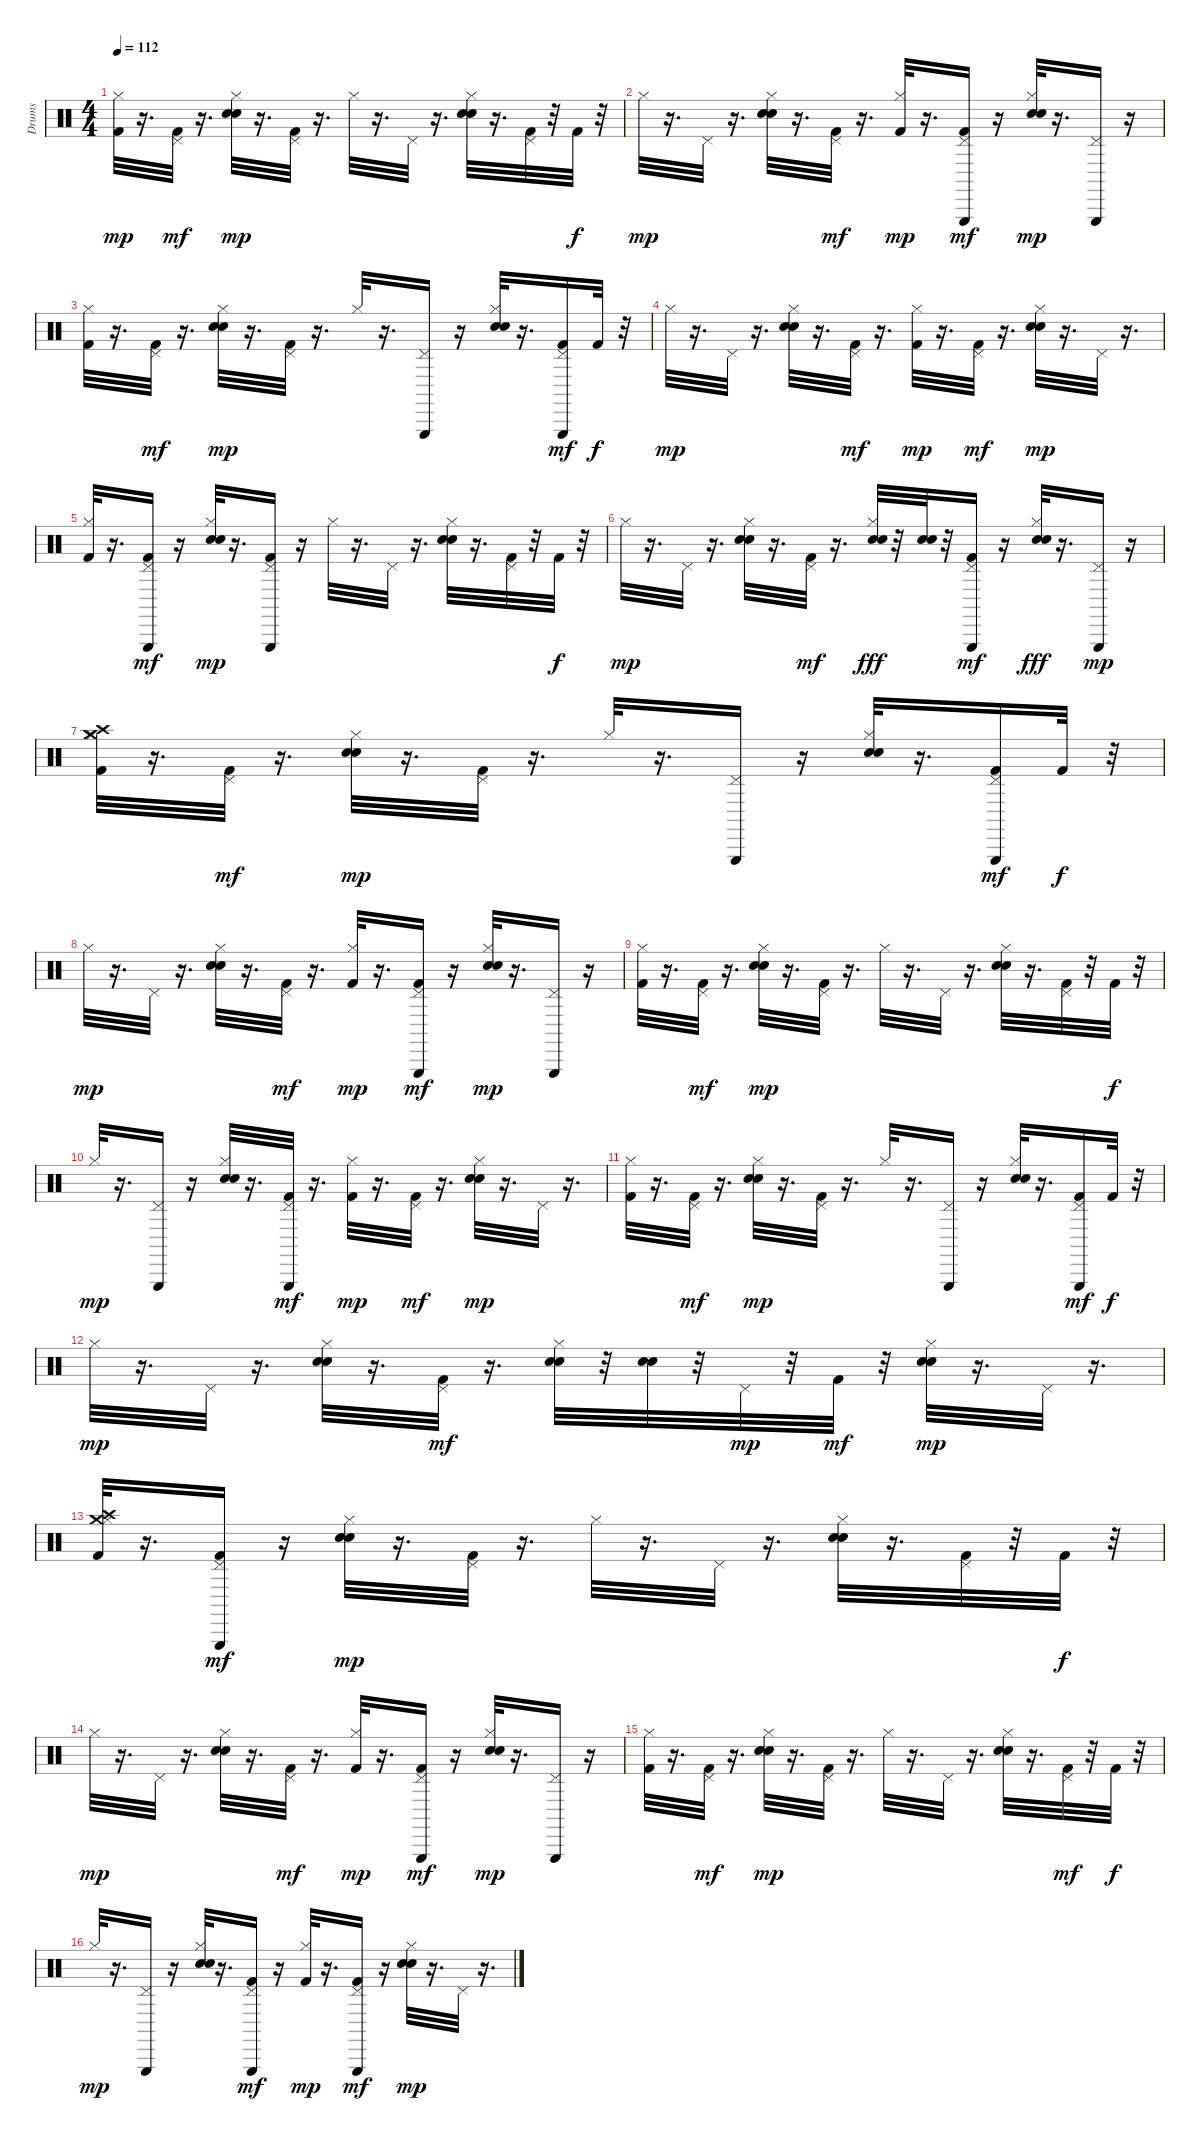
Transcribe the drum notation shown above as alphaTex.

\track ("Drums" "Drums") {instrument percussion}
\staff {score}
\articulation defaults
\ts (4 4)
\tempo 112
\clef neutral
\ks c
("Hi-Hat (closed)" "Kick (hit) 2").32{dy mp} r.16{d} ("Pedal Hi-Hat (hit)" "Kick (hit) 2").32{dy mf} r.16{d} ("Hi-Hat (closed)" "Electric Snare (hit)" "Hand Clap (hit)").32{dy mp} r.16{d} ("Pedal Hi-Hat (hit)" "Kick (hit) 2").32 r.16{d} "Hi-Hat (closed)".32 r.16{d} "Pedal Hi-Hat (hit)".32 r.16{d} ("Hi-Hat (closed)" "Electric Snare (hit)" "Hand Clap (hit)").32 r.16{d} ("Pedal Hi-Hat (hit)" "Kick (hit) 2").32 r.32 "Kick (hit) 2".32{dy f} r.32 |
"Hi-Hat (closed)".32{dy mp} r.16{d} "Pedal Hi-Hat (hit)".32 r.16{d} ("Hi-Hat (closed)" "Electric Snare (hit)" "Hand Clap (hit)").32 r.16{d} ("Pedal Hi-Hat (hit)" "Kick (hit) 2").32{dy mf} r.16{d} ("Hi-Hat (closed)" "Kick (hit) 2").32{dy mp} r.16{d} ("Triangle (hit)" "Pedal Hi-Hat (hit)" "Kick (hit) 2").16{dy mf} r.16 ("Hi-Hat (closed)" "Electric Snare (hit)" "Hand Clap (hit)").32{dy mp} r.16{d} ("Triangle (hit)" "Pedal Hi-Hat (hit)").16 r.16 |
("Hi-Hat (closed)" "Kick (hit) 2").32 r.16{d} ("Pedal Hi-Hat (hit)" "Kick (hit) 2").32{dy mf} r.16{d} ("Hi-Hat (closed)" "Electric Snare (hit)" "Hand Clap (hit)").32{dy mp} r.16{d} ("Pedal Hi-Hat (hit)" "Kick (hit) 2").32 r.16{d} "Hi-Hat (closed)".32 r.16{d} ("Triangle (hit)" "Pedal Hi-Hat (hit)").16 r.16 ("Hi-Hat (closed)" "Electric Snare (hit)" "Hand Clap (hit)").32 r.16{d} ("Triangle (hit)" "Pedal Hi-Hat (hit)" "Kick (hit) 2").16{dy mf} "Kick (hit) 2".32{dy f} r.32 |
"Hi-Hat (closed)".32{dy mp} r.16{d} "Pedal Hi-Hat (hit)".32 r.16{d} ("Hi-Hat (closed)" "Electric Snare (hit)" "Hand Clap (hit)").32 r.16{d} ("Pedal Hi-Hat (hit)" "Kick (hit) 2").32{dy mf} r.16{d} ("Hi-Hat (closed)" "Kick (hit) 2").32{dy mp} r.16{d} ("Pedal Hi-Hat (hit)" "Kick (hit) 2").32{dy mf} r.16{d} ("Hi-Hat (closed)" "Electric Snare (hit)" "Hand Clap (hit)").32{dy mp} r.16{d} "Pedal Hi-Hat (hit)".32 r.16{d} |
("Hi-Hat (closed)" "Kick (hit) 2").32 r.16{d} ("Triangle (hit)" "Pedal Hi-Hat (hit)" "Kick (hit) 2").16{dy mf} r.16 ("Hi-Hat (closed)" "Electric Snare (hit)" "Hand Clap (hit)").32{dy mp} r.16{d} ("Triangle (hit)" "Pedal Hi-Hat (hit)" "Kick (hit) 2").16 r.16 "Hi-Hat (closed)".32 r.16{d} "Pedal Hi-Hat (hit)".32 r.16{d} ("Hi-Hat (closed)" "Electric Snare (hit)" "Hand Clap (hit)").32 r.16{d} ("Pedal Hi-Hat (hit)" "Kick (hit) 2").32 r.32 "Kick (hit) 2".32{dy f} r.32 |
"Hi-Hat (closed)".32{dy mp} r.16{d} "Pedal Hi-Hat (hit)".32 r.16{d} ("Hi-Hat (closed)" "Electric Snare (hit)" "Hand Clap (hit)").32 r.16{d} ("Pedal Hi-Hat (hit)" "Kick (hit) 2").32{dy mf} r.16{d} ("Hi-Hat (closed)" "Electric Snare (hit)" "Hand Clap (hit)").32{dy fff} r.32 ("Electric Snare (hit)" "Hand Clap (hit)").32 r.32 ("Triangle (hit)" "Pedal Hi-Hat (hit)" "Kick (hit) 2").16{dy mf} r.16 ("Hi-Hat (closed)" "Hand Clap (hit)" "Electric Snare (hit)").32{dy fff} r.16{d} ("Triangle (hit)" "Pedal Hi-Hat (hit)").16{dy mp} r.16 |
("Crash high (hit)" "Crash medium (hit)" "Hi-Hat (closed)" "Kick (hit) 2").32 r.16{d} ("Pedal Hi-Hat (hit)" "Kick (hit) 2").32{dy mf} r.16{d} ("Hi-Hat (closed)" "Electric Snare (hit)" "Hand Clap (hit)").32{dy mp} r.16{d} ("Pedal Hi-Hat (hit)" "Kick (hit) 2").32 r.16{d} "Hi-Hat (closed)".32 r.16{d} ("Triangle (hit)" "Pedal Hi-Hat (hit)").16 r.16 ("Hi-Hat (closed)" "Electric Snare (hit)" "Hand Clap (hit)").32 r.16{d} ("Triangle (hit)" "Pedal Hi-Hat (hit)" "Kick (hit) 2").16{dy mf} "Kick (hit) 2".32{dy f} r.32 |
"Hi-Hat (closed)".32{dy mp} r.16{d} "Pedal Hi-Hat (hit)".32 r.16{d} ("Hi-Hat (closed)" "Electric Snare (hit)" "Hand Clap (hit)").32 r.16{d} ("Pedal Hi-Hat (hit)" "Kick (hit) 2").32{dy mf} r.16{d} ("Hi-Hat (closed)" "Kick (hit) 2").32{dy mp} r.16{d} ("Triangle (hit)" "Pedal Hi-Hat (hit)" "Kick (hit) 2").16{dy mf} r.16 ("Hi-Hat (closed)" "Electric Snare (hit)" "Hand Clap (hit)").32{dy mp} r.16{d} ("Triangle (hit)" "Pedal Hi-Hat (hit)").16 r.16 |
("Hi-Hat (closed)" "Kick (hit) 2").32 r.16{d} ("Pedal Hi-Hat (hit)" "Kick (hit) 2").32{dy mf} r.16{d} ("Hi-Hat (closed)" "Electric Snare (hit)" "Hand Clap (hit)").32{dy mp} r.16{d} ("Pedal Hi-Hat (hit)" "Kick (hit) 2").32 r.16{d} "Hi-Hat (closed)".32 r.16{d} "Pedal Hi-Hat (hit)".32 r.16{d} ("Hi-Hat (closed)" "Electric Snare (hit)" "Hand Clap (hit)").32 r.16{d} ("Pedal Hi-Hat (hit)" "Kick (hit) 2").32 r.32 "Kick (hit) 2".32{dy f} r.32 |
"Hi-Hat (closed)".32{dy mp} r.16{d} ("Triangle (hit)" "Pedal Hi-Hat (hit)").16 r.16 ("Hi-Hat (closed)" "Electric Snare (hit)" "Hand Clap (hit)").32 r.16{d} ("Triangle (hit)" "Pedal Hi-Hat (hit)" "Kick (hit) 2").32{dy mf} r.16{d} ("Hi-Hat (closed)" "Kick (hit) 2").32{dy mp} r.16{d} ("Pedal Hi-Hat (hit)" "Kick (hit) 2").32{dy mf} r.16{d} ("Hi-Hat (closed)" "Electric Snare (hit)" "Hand Clap (hit)").32{dy mp} r.16{d} "Pedal Hi-Hat (hit)".32 r.16{d} |
("Hi-Hat (closed)" "Kick (hit) 2").32 r.16{d} ("Pedal Hi-Hat (hit)" "Kick (hit) 2").32{dy mf} r.16{d} ("Hi-Hat (closed)" "Electric Snare (hit)" "Hand Clap (hit)").32{dy mp} r.16{d} ("Pedal Hi-Hat (hit)" "Kick (hit) 2").32 r.16{d} "Hi-Hat (closed)".32 r.16{d} ("Triangle (hit)" "Pedal Hi-Hat (hit)").16 r.16 ("Hi-Hat (closed)" "Electric Snare (hit)" "Hand Clap (hit)").32 r.16{d} ("Triangle (hit)" "Pedal Hi-Hat (hit)" "Kick (hit) 2").16{dy mf} "Kick (hit) 2".32{dy f} r.32 |
"Hi-Hat (closed)".32{dy mp} r.16{d} "Pedal Hi-Hat (hit)".32 r.16{d} ("Hi-Hat (closed)" "Electric Snare (hit)" "Hand Clap (hit)").32 r.16{d} ("Pedal Hi-Hat (hit)" "Kick (hit) 2").32{dy mf} r.16{d} ("Hi-Hat (closed)" "Hand Clap (hit)" "Electric Snare (hit)").32 r.32 ("Hand Clap (hit)" "Electric Snare (hit)").32 r.32 "Pedal Hi-Hat (hit)".32{dy mp} r.32 "Kick (hit) 2".32{dy mf} r.32 ("Hi-Hat (closed)" "Electric Snare (hit)" "Hand Clap (hit)").32{dy mp} r.16{d} "Pedal Hi-Hat (hit)".32 r.16{d} |
("Crash medium (hit)" "Crash high (hit)" "Hi-Hat (closed)" "Kick (hit) 2").32 r.16{d} ("Triangle (hit)" "Pedal Hi-Hat (hit)" "Kick (hit) 2").16{dy mf} r.16 ("Hi-Hat (closed)" "Electric Snare (hit)" "Hand Clap (hit)").32{dy mp} r.16{d} ("Pedal Hi-Hat (hit)" "Kick (hit) 2").32 r.16{d} "Hi-Hat (closed)".32 r.16{d} "Pedal Hi-Hat (hit)".32 r.16{d} ("Hi-Hat (closed)" "Electric Snare (hit)" "Hand Clap (hit)").32 r.16{d} ("Pedal Hi-Hat (hit)" "Kick (hit) 2").32 r.32 "Kick (hit) 2".32{dy f} r.32 |
"Hi-Hat (closed)".32{dy mp} r.16{d} "Pedal Hi-Hat (hit)".32 r.16{d} ("Hi-Hat (closed)" "Electric Snare (hit)" "Hand Clap (hit)").32 r.16{d} ("Pedal Hi-Hat (hit)" "Kick (hit) 2").32{dy mf} r.16{d} ("Hi-Hat (closed)" "Kick (hit) 2").32{dy mp} r.16{d} ("Triangle (hit)" "Pedal Hi-Hat (hit)" "Kick (hit) 2").16{dy mf} r.16 ("Hi-Hat (closed)" "Electric Snare (hit)" "Hand Clap (hit)").32{dy mp} r.16{d} ("Triangle (hit)" "Pedal Hi-Hat (hit)").16 r.16 |
("Hi-Hat (closed)" "Kick (hit) 2").32 r.16{d} ("Pedal Hi-Hat (hit)" "Kick (hit) 2").32{dy mf} r.16{d} ("Hi-Hat (closed)" "Electric Snare (hit)" "Hand Clap (hit)").32{dy mp} r.16{d} ("Pedal Hi-Hat (hit)" "Kick (hit) 2").32 r.16{d} "Hi-Hat (closed)".32 r.16{d} "Pedal Hi-Hat (hit)".32 r.16{d} ("Hi-Hat (closed)" "Electric Snare (hit)" "Hand Clap (hit)").32 r.16{d} ("Pedal Hi-Hat (hit)" "Kick (hit) 2").32{dy mf} r.32 "Kick (hit) 2".32{dy f} r.32 |
"Hi-Hat (closed)".32{dy mp} r.16{d} ("Triangle (hit)" "Pedal Hi-Hat (hit)").16 r.16 ("Hi-Hat (closed)" "Electric Snare (hit)" "Hand Clap (hit)").32 r.16{d} ("Triangle (hit)" "Pedal Hi-Hat (hit)" "Kick (hit) 2").16{dy mf} r.16 ("Hi-Hat (closed)" "Kick (hit) 2").32{dy mp} r.16{d} ("Triangle (hit)" "Pedal Hi-Hat (hit)" "Kick (hit) 2").16{dy mf} r.16 ("Hi-Hat (closed)" "Electric Snare (hit)" "Hand Clap (hit)").32{dy mp} r.16{d} "Pedal Hi-Hat (hit)".32 r.16{d}
